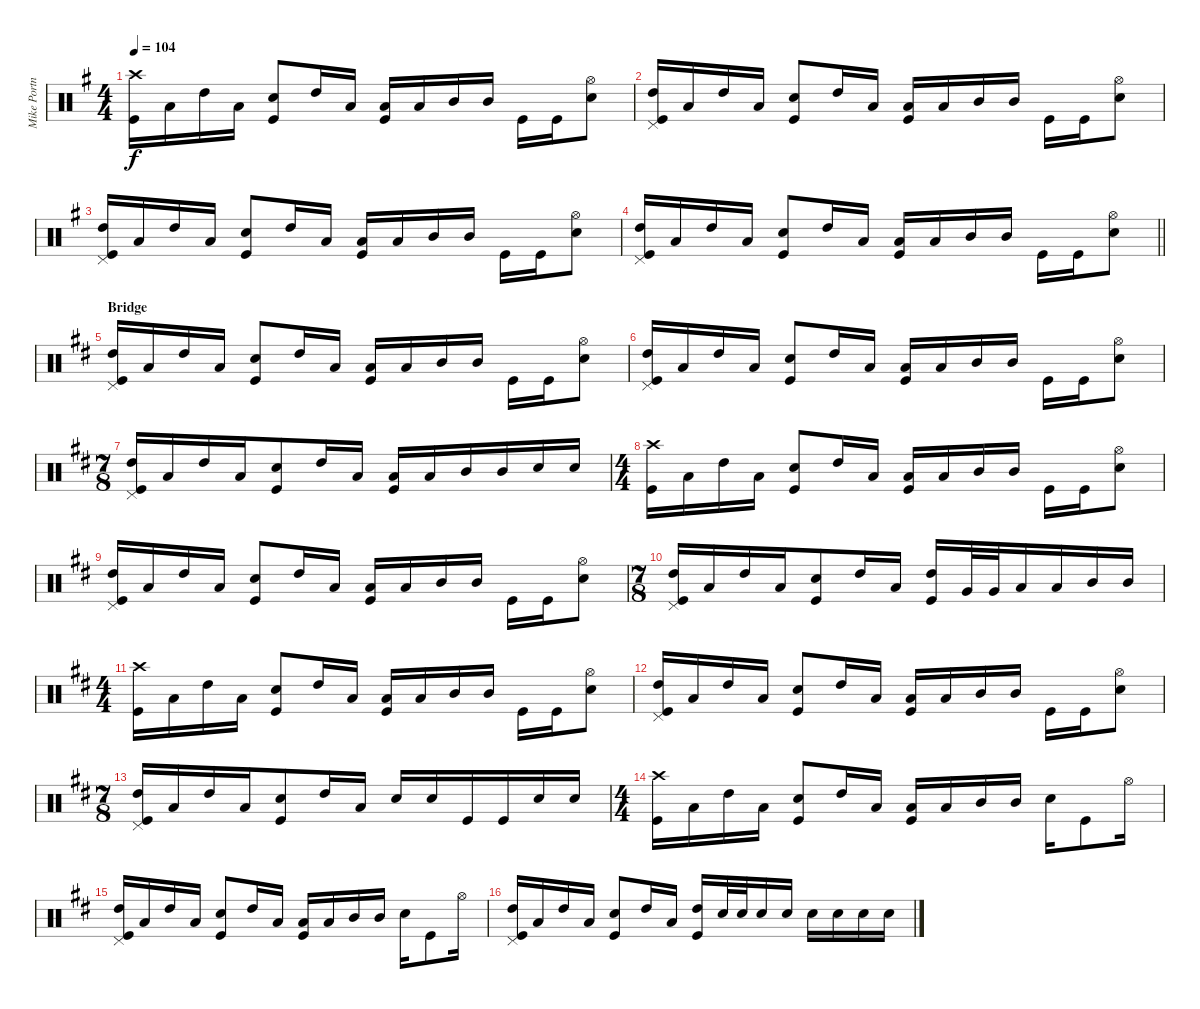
\track ("Mike Portnoy" "Mike Portn") {instrument percussion}
\staff {score}
\articulation defaults
\ts (4 4)
\tempo 104
\clef neutral
\ks eminor
("Kick (hit)" "Crash high (hit)").16{dy f} "Low Tom (hit)".16 "High Tom (hit)".16 "Low Tom (hit)".16 ("Snare (hit) 2" "Kick (hit)").8 "High Tom (hit)".16 "Low Tom (hit)".16 ("Kick (hit)" "Low Tom (hit)").16 "Low Tom (hit)".16 "Mid Tom (hit)".16 "Mid Tom (hit)".16 "Kick (hit)".16 "Kick (hit)".16 ("Snare (hit) 2" "Hi-Hat (open)").8 |
("High Tom (hit)" "Kick (hit)" "Pedal Hi-Hat (hit)").16 "Low Tom (hit)".16 "High Tom (hit)".16 "Low Tom (hit)".16 ("Snare (hit) 2" "Kick (hit)").8 "High Tom (hit)".16 "Low Tom (hit)".16 ("Kick (hit)" "Low Tom (hit)").16 "Low Tom (hit)".16 "Mid Tom (hit)".16 "Mid Tom (hit)".16 "Kick (hit)".16 "Kick (hit)".16 ("Snare (hit) 2" "Hi-Hat (open)").8 |
("High Tom (hit)" "Kick (hit)" "Pedal Hi-Hat (hit)").16 "Low Tom (hit)".16 "High Tom (hit)".16 "Low Tom (hit)".16 ("Snare (hit) 2" "Kick (hit)").8 "High Tom (hit)".16 "Low Tom (hit)".16 ("Kick (hit)" "Low Tom (hit)").16 "Low Tom (hit)".16 "Mid Tom (hit)".16 "Mid Tom (hit)".16 "Kick (hit)".16 "Kick (hit)".16 ("Snare (hit) 2" "Hi-Hat (open)").8 |
\barLineRight lightlight
("High Tom (hit)" "Kick (hit)" "Pedal Hi-Hat (hit)").16 "Low Tom (hit)".16 "High Tom (hit)".16 "Low Tom (hit)".16 ("Snare (hit) 2" "Kick (hit)").8 "High Tom (hit)".16 "Low Tom (hit)".16 ("Kick (hit)" "Low Tom (hit)").16 "Low Tom (hit)".16 "Mid Tom (hit)".16 "Mid Tom (hit)".16 "Kick (hit)".16 "Kick (hit)".16 ("Snare (hit) 2" "Hi-Hat (open)").8 |
\section ("" "Bridge")
\ks bminor
("High Tom (hit)" "Kick (hit)" "Pedal Hi-Hat (hit)").16 "Low Tom (hit)".16 "High Tom (hit)".16 "Low Tom (hit)".16 ("Snare (hit) 2" "Kick (hit)").8 "High Tom (hit)".16 "Low Tom (hit)".16 ("Kick (hit)" "Low Tom (hit)").16 "Low Tom (hit)".16 "Mid Tom (hit)".16 "Mid Tom (hit)".16 "Kick (hit)".16 "Kick (hit)".16 ("Snare (hit) 2" "Hi-Hat (open)").8 |
("High Tom (hit)" "Kick (hit)" "Pedal Hi-Hat (hit)").16 "Low Tom (hit)".16 "High Tom (hit)".16 "Low Tom (hit)".16 ("Snare (hit) 2" "Kick (hit)").8 "High Tom (hit)".16 "Low Tom (hit)".16 ("Kick (hit)" "Low Tom (hit)").16 "Low Tom (hit)".16 "Mid Tom (hit)".16 "Mid Tom (hit)".16 "Kick (hit)".16 "Kick (hit)".16 ("Snare (hit) 2" "Hi-Hat (open)").8 |
\ts (7 8)
("High Tom (hit)" "Kick (hit)" "Pedal Hi-Hat (hit)").16 "Low Tom (hit)".16 "High Tom (hit)".16 "Low Tom (hit)".16 ("Snare (hit) 2" "Kick (hit)").8 "High Tom (hit)".16 "Low Tom (hit)".16 ("Kick (hit)" "Low Tom (hit)").16 "Low Tom (hit)".16 "Mid Tom (hit)".16 "Mid Tom (hit)".16 "Snare (hit) 2".16 "Snare (hit) 2".16 |
\ts (4 4)
("Kick (hit)" "Crash high (hit)").16 "Low Tom (hit)".16 "High Tom (hit)".16 "Low Tom (hit)".16 ("Snare (hit) 2" "Kick (hit)").8 "High Tom (hit)".16 "Low Tom (hit)".16 ("Kick (hit)" "Low Tom (hit)").16 "Low Tom (hit)".16 "Mid Tom (hit)".16 "Mid Tom (hit)".16 "Kick (hit)".16 "Kick (hit)".16 ("Snare (hit) 2" "Hi-Hat (open)").8 |
("High Tom (hit)" "Kick (hit)" "Pedal Hi-Hat (hit)").16 "Low Tom (hit)".16 "High Tom (hit)".16 "Low Tom (hit)".16 ("Snare (hit) 2" "Kick (hit)").8 "High Tom (hit)".16 "Low Tom (hit)".16 ("Kick (hit)" "Low Tom (hit)").16 "Low Tom (hit)".16 "Mid Tom (hit)".16 "Mid Tom (hit)".16 "Kick (hit)".16 "Kick (hit)".16 ("Snare (hit) 2" "Hi-Hat (open)").8 |
\ts (7 8)
("High Tom (hit)" "Kick (hit)" "Pedal Hi-Hat (hit)").16 "Low Tom (hit)".16 "High Tom (hit)".16 "Low Tom (hit)".16 ("Snare (hit) 2" "Kick (hit)").8 "High Tom (hit)".16 "Low Tom (hit)".16 ("Kick (hit)" "High Tom (hit)").16 "Very Low Tom (hit)".32 "Very Low Tom (hit)".32 "Low Tom (hit)".16 "Low Tom (hit)".16 "Mid Tom (hit)".16 "Mid Tom (hit)".16 |
\ts (4 4)
("Kick (hit)" "Crash high (hit)").16 "Low Tom (hit)".16 "High Tom (hit)".16 "Low Tom (hit)".16 ("Snare (hit) 2" "Kick (hit)").8 "High Tom (hit)".16 "Low Tom (hit)".16 ("Kick (hit)" "Low Tom (hit)").16 "Low Tom (hit)".16 "Mid Tom (hit)".16 "Mid Tom (hit)".16 "Kick (hit)".16 "Kick (hit)".16 ("Snare (hit) 2" "Hi-Hat (open)").8 |
("High Tom (hit)" "Kick (hit)" "Pedal Hi-Hat (hit)").16 "Low Tom (hit)".16 "High Tom (hit)".16 "Low Tom (hit)".16 ("Snare (hit) 2" "Kick (hit)").8 "High Tom (hit)".16 "Low Tom (hit)".16 ("Kick (hit)" "Low Tom (hit)").16 "Low Tom (hit)".16 "Mid Tom (hit)".16 "Mid Tom (hit)".16 "Kick (hit)".16 "Kick (hit)".16 ("Snare (hit) 2" "Hi-Hat (open)").8 |
\ts (7 8)
("High Tom (hit)" "Kick (hit)" "Pedal Hi-Hat (hit)").16 "Low Tom (hit)".16 "High Tom (hit)".16 "Low Tom (hit)".16 ("Snare (hit) 2" "Kick (hit)").8 "High Tom (hit)".16 "Low Tom (hit)".16 "Snare (hit) 2".16 "Snare (hit) 2".16 "Kick (hit)".16 "Kick (hit)".16 "Snare (hit) 2".16 "Snare (hit) 2".16 |
\ts (4 4)
("Kick (hit)" "Crash high (hit)").16 "Low Tom (hit)".16 "High Tom (hit)".16 "Low Tom (hit)".16 ("Snare (hit) 2" "Kick (hit)").8 "High Tom (hit)".16 "Low Tom (hit)".16 ("Kick (hit)" "Low Tom (hit)").16 "Low Tom (hit)".16 "Mid Tom (hit)".16 "Mid Tom (hit)".16 "Electric Snare (hit)".16 "Kick (hit)".8 "Hi-Hat (open)".16 |
("High Tom (hit)" "Kick (hit)" "Pedal Hi-Hat (hit)").16 "Low Tom (hit)".16 "High Tom (hit)".16 "Low Tom (hit)".16 ("Snare (hit) 2" "Kick (hit)").8 "High Tom (hit)".16 "Low Tom (hit)".16 ("Kick (hit)" "Low Tom (hit)").16 "Low Tom (hit)".16 "Mid Tom (hit)".16 "Mid Tom (hit)".16 "Electric Snare (hit)".16 "Kick (hit)".8 "Hi-Hat (open)".16 |
("High Tom (hit)" "Kick (hit)" "Pedal Hi-Hat (hit)").16 "Low Tom (hit)".16 "High Tom (hit)".16 "Low Tom (hit)".16 ("Snare (hit) 2" "Kick (hit)").8 "High Tom (hit)".16 "Low Tom (hit)".16 ("High Tom (hit)" "Kick (hit)").16 "Snare (hit) 2".32 "Snare (hit) 2".32 "Snare (hit) 2".16 "Snare (hit) 2".16 "Snare (hit) 2".16 "Snare (hit) 2".16 "Snare (hit) 2".16 "Snare (hit) 2".16
